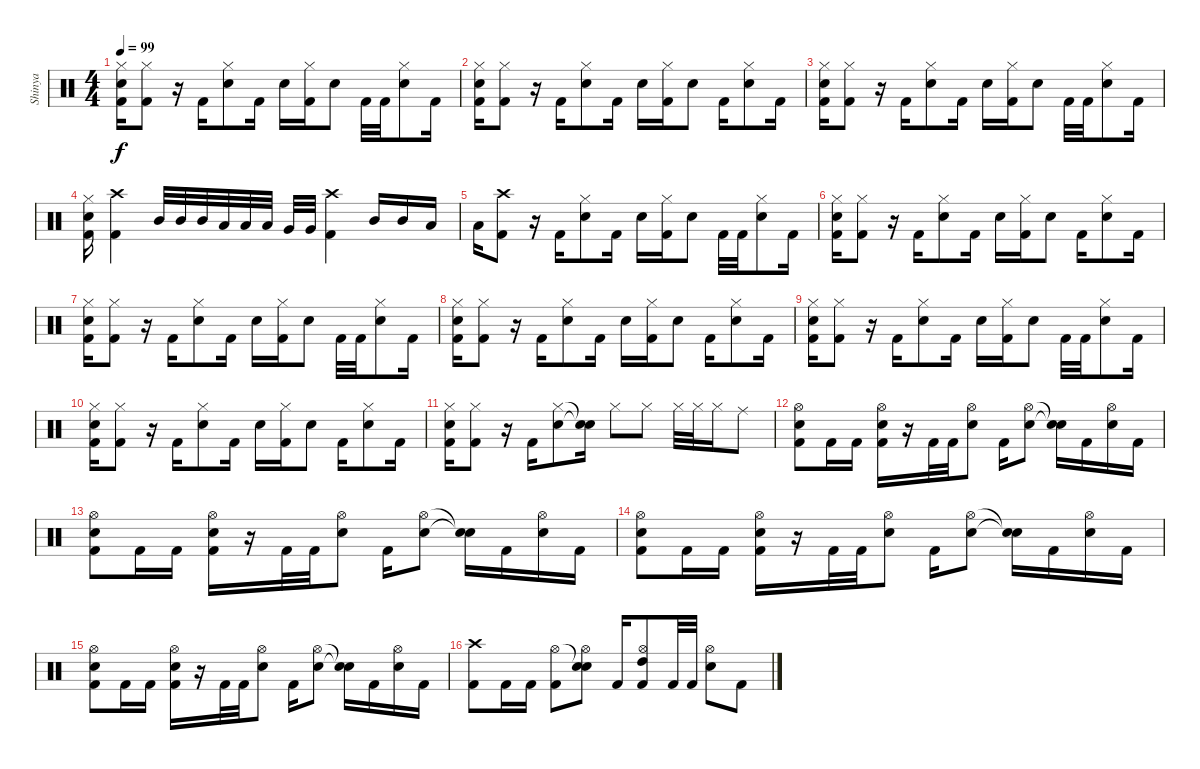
\track ("Shinya" "Shinya") {instrument percussion}
\staff {score}
\articulation defaults
\ts (4 4)
\tempo 99
\clef neutral
\ks c
("Hi-Hat (closed)" "Snare (hit) 2" "Kick (hit) 2").16{dy f} ("Hi-Hat (closed)" "Kick (hit) 2").8 r.16 "Kick (hit) 2".16 ("Hi-Hat (closed)" "Snare (hit) 2").8 "Kick (hit) 2".16 "Snare (hit) 2".16 ("Hi-Hat (closed)" "Kick (hit) 2").16 "Snare (hit) 2".8 "Kick (hit) 2".32 "Kick (hit) 2".32 ("Hi-Hat (closed)" "Snare (hit) 2").8 "Kick (hit) 2".16 |
("Hi-Hat (closed)" "Snare (hit) 2" "Kick (hit) 2").16 ("Hi-Hat (closed)" "Kick (hit) 2").8 r.16 "Kick (hit) 2".16 ("Hi-Hat (closed)" "Snare (hit) 2").8 "Kick (hit) 2".16 "Snare (hit) 2".16 ("Hi-Hat (closed)" "Kick (hit) 2").16 "Snare (hit) 2".8 "Kick (hit) 2".16 ("Hi-Hat (closed)" "Snare (hit) 2").8 "Kick (hit) 2".16 |
("Hi-Hat (closed)" "Snare (hit) 2" "Kick (hit) 2").16 ("Hi-Hat (closed)" "Kick (hit) 2").8 r.16 "Kick (hit) 2".16 ("Hi-Hat (closed)" "Snare (hit) 2").8 "Kick (hit) 2".16 "Snare (hit) 2".16 ("Hi-Hat (closed)" "Kick (hit) 2").16 "Snare (hit) 2".8 "Kick (hit) 2".32 "Kick (hit) 2".32 ("Hi-Hat (closed)" "Snare (hit) 2").8 "Kick (hit) 2".16 |
("Hi-Hat (closed)" "Snare (hit) 2" "Kick (hit) 2").16 ("Crash high (hit)" "Kick (hit) 2").4 "Mid Tom (hit)".32 "Mid Tom (hit)".32 "Mid Tom (hit)".32 "Low Tom (hit)".32 "Low Tom (hit)".32 "Low Tom (hit)".32 "Very Low Tom (hit)".32 "Very Low Tom (hit)".32 ("Crash high (hit)" "Kick (hit) 2").4 "Mid Tom (hit)".16 "Mid Tom (hit)".16 "Low Tom (hit)".16 |
"Low Tom (hit)".16 ("Crash high (hit)" "Kick (hit) 2").8 r.16 "Kick (hit) 2".16 ("Hi-Hat (closed)" "Snare (hit) 2").8 "Kick (hit) 2".16 "Snare (hit) 2".16 ("Hi-Hat (closed)" "Kick (hit) 2").16 "Snare (hit) 2".8 "Kick (hit) 2".32 "Kick (hit) 2".32 ("Hi-Hat (closed)" "Snare (hit) 2").8 "Kick (hit) 2".16 |
("Hi-Hat (closed)" "Snare (hit) 2" "Kick (hit) 2").16 ("Hi-Hat (closed)" "Kick (hit) 2").8 r.16 "Kick (hit) 2".16 ("Hi-Hat (closed)" "Snare (hit) 2").8 "Kick (hit) 2".16 "Snare (hit) 2".16 ("Hi-Hat (closed)" "Kick (hit) 2").16 "Snare (hit) 2".8 "Kick (hit) 2".16 ("Hi-Hat (closed)" "Snare (hit) 2").8 "Kick (hit) 2".16 |
("Hi-Hat (closed)" "Snare (hit) 2" "Kick (hit) 2").16 ("Hi-Hat (closed)" "Kick (hit) 2").8 r.16 "Kick (hit) 2".16 ("Hi-Hat (closed)" "Snare (hit) 2").8 "Kick (hit) 2".16 "Snare (hit) 2".16 ("Hi-Hat (closed)" "Kick (hit) 2").16 "Snare (hit) 2".8 "Kick (hit) 2".32 "Kick (hit) 2".32 ("Hi-Hat (closed)" "Snare (hit) 2").8 "Kick (hit) 2".16 |
("Hi-Hat (closed)" "Snare (hit) 2" "Kick (hit) 2").16 ("Hi-Hat (closed)" "Kick (hit) 2").8 r.16 "Kick (hit) 2".16 ("Hi-Hat (closed)" "Snare (hit) 2").8 "Kick (hit) 2".16 "Snare (hit) 2".16 ("Hi-Hat (closed)" "Kick (hit) 2").16 "Snare (hit) 2".8 "Kick (hit) 2".16 ("Hi-Hat (closed)" "Snare (hit) 2").8 "Kick (hit) 2".16 |
("Hi-Hat (closed)" "Snare (hit) 2" "Kick (hit) 2").16 ("Hi-Hat (closed)" "Kick (hit) 2").8 r.16 "Kick (hit) 2".16 ("Hi-Hat (closed)" "Snare (hit) 2").8 "Kick (hit) 2".16 "Snare (hit) 2".16 ("Hi-Hat (closed)" "Kick (hit) 2").16 "Snare (hit) 2".8 "Kick (hit) 2".32 "Kick (hit) 2".32 ("Hi-Hat (closed)" "Snare (hit) 2").8 "Kick (hit) 2".16 |
("Hi-Hat (closed)" "Snare (hit) 2" "Kick (hit) 2").16 ("Hi-Hat (closed)" "Kick (hit) 2").8 r.16 "Kick (hit) 2".16 ("Hi-Hat (closed)" "Snare (hit) 2").8 "Kick (hit) 2".16 "Snare (hit) 2".16 ("Hi-Hat (closed)" "Kick (hit) 2").16 "Snare (hit) 2".8 "Kick (hit) 2".16 ("Hi-Hat (closed)" "Snare (hit) 2").8 "Kick (hit) 2".16 |
("Hi-Hat (closed)" "Snare (hit) 2" "Kick (hit) 2").16 ("Hi-Hat (closed)" "Kick (hit) 2").8 r.16 "Kick (hit) 2".16 ("Hi-Hat (closed)" "Snare (hit) 2").8 ("Snare (hit)"{t} "Snare (hit)"{t}).16 "Hi-Hat (closed)".8 "Hi-Hat (closed)".8 "Hi-Hat (closed)".32 "Hi-Hat (closed)".32 "Hi-Hat (closed)".16 "Ride (middle)".8 |
("Hi-Hat (open)" "Snare (hit) 2" "Kick (hit) 2").8 "Kick (hit) 2".16 "Kick (hit) 2".16 ("Hi-Hat (open)" "Snare (hit) 2" "Kick (hit) 2").16 r.16 "Kick (hit) 2".32 "Kick (hit) 2".32 ("Hi-Hat (open)" "Snare (hit) 2").8 "Kick (hit) 2".16 ("Hi-Hat (open)" "Snare (hit) 2").8 ("Snare (hit)"{t} "Snare (hit)"{t}).16 "Kick (hit) 2".16 ("Hi-Hat (open)" "Snare (hit) 2").16 "Kick (hit) 2".16 |
("Hi-Hat (open)" "Snare (hit) 2" "Kick (hit) 2").8 "Kick (hit) 2".16 "Kick (hit) 2".16 ("Hi-Hat (open)" "Snare (hit) 2" "Kick (hit) 2").16 r.16 "Kick (hit) 2".32 "Kick (hit) 2".32 ("Hi-Hat (open)" "Snare (hit) 2").8 "Kick (hit) 2".16 ("Hi-Hat (open)" "Snare (hit) 2").8 ("Snare (hit)"{t} "Snare (hit)"{t}).16 "Kick (hit) 2".16 ("Hi-Hat (open)" "Snare (hit) 2").16 "Kick (hit) 2".16 |
("Hi-Hat (open)" "Snare (hit) 2" "Kick (hit) 2").8 "Kick (hit) 2".16 "Kick (hit) 2".16 ("Hi-Hat (open)" "Snare (hit) 2" "Kick (hit) 2").16 r.16 "Kick (hit) 2".32 "Kick (hit) 2".32 ("Hi-Hat (open)" "Snare (hit) 2").8 "Kick (hit) 2".16 ("Hi-Hat (open)" "Snare (hit) 2").8 ("Snare (hit)"{t} "Snare (hit)"{t}).16 "Kick (hit) 2".16 ("Hi-Hat (open)" "Snare (hit) 2").16 "Kick (hit) 2".16 |
("Hi-Hat (open)" "Snare (hit) 2" "Kick (hit) 2").8 "Kick (hit) 2".16 "Kick (hit) 2".16 ("Hi-Hat (open)" "Snare (hit) 2" "Kick (hit) 2").16 r.16 "Kick (hit) 2".32 "Kick (hit) 2".32 ("Hi-Hat (open)" "Snare (hit) 2").8 "Kick (hit) 2".16 ("Hi-Hat (open)" "Snare (hit) 2").8 ("Snare (hit)"{t} "Snare (hit)"{t}).16 "Kick (hit) 2".16 ("Hi-Hat (open)" "Snare (hit) 2").16 "Kick (hit) 2".16 |
("Crash high (hit)" "Kick (hit) 2").8 "Kick (hit) 2".16 "Kick (hit) 2".16 ("Hi-Hat (open)" "Kick (hit) 2").8 ("Snare (hit)"{t} "Hi-Hat (open)" "Snare (hit) 2").8 "Kick (hit) 2".16 ("Hi-Hat (open)" "High Tom (hit)" "Kick (hit) 2").8 "Kick (hit) 2".32 "Kick (hit) 2".32 ("Hi-Hat (open)" "Snare (hit) 2").8 "Kick (hit) 2".8
